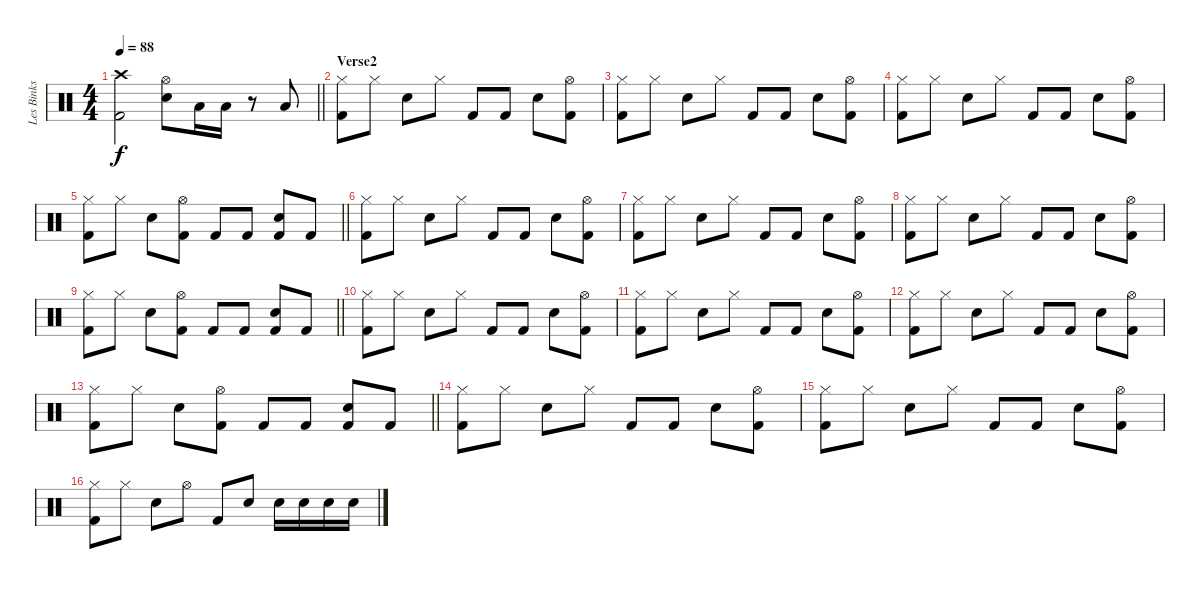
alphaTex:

\track ("Les Binks" "Les Binks") {instrument percussion}
\staff {score}
\articulation defaults
\ts (4 4)
\tempo 88
\clef neutral
\barLineRight lightlight
\ks c
("Crash high (hit)" "Kick (hit) 2").2{dy f} ("Snare (hit) 2" "Hi-Hat (open)").8 "Low Tom (hit)".16 "Low Tom (hit)".16 r.8 "Low Floor Tom (hit)".8 |
\section ("" "Verse2")
("Hi-Hat (closed)" "Kick (hit) 2").8 "Hi-Hat (closed)".8 "Snare (hit) 2".8 "Hi-Hat (closed)".8 "Kick (hit) 2".8 "Kick (hit) 2".8 "Snare (hit) 2".8 ("Hi-Hat (open)" "Kick (hit) 2").8 |
("Hi-Hat (closed)" "Kick (hit) 2").8 "Hi-Hat (closed)".8 "Snare (hit) 2".8 "Hi-Hat (closed)".8 "Kick (hit) 2".8 "Kick (hit) 2".8 "Snare (hit) 2".8 ("Hi-Hat (open)" "Kick (hit) 2").8 |
("Hi-Hat (closed)" "Kick (hit) 2").8 "Hi-Hat (closed)".8 "Snare (hit) 2".8 "Hi-Hat (closed)".8 "Kick (hit) 2".8 "Kick (hit) 2".8 "Snare (hit) 2".8 ("Hi-Hat (open)" "Kick (hit) 2").8 |
\barLineRight lightlight
("Hi-Hat (closed)" "Kick (hit) 2").8 "Hi-Hat (closed)".8 "Snare (hit) 2".8 ("Hi-Hat (open)" "Kick (hit) 2").8 "Kick (hit) 2".8 "Kick (hit) 2".8 ("Snare (hit) 2" "Kick (hit) 2").8 "Kick (hit) 2".8 |
("Hi-Hat (closed)" "Kick (hit) 2").8 "Hi-Hat (closed)".8 "Snare (hit) 2".8 "Hi-Hat (closed)".8 "Kick (hit) 2".8 "Kick (hit) 2".8 "Snare (hit) 2".8 ("Hi-Hat (open)" "Kick (hit) 2").8 |
("Hi-Hat (closed)" "Kick (hit) 2").8 "Hi-Hat (closed)".8 "Snare (hit) 2".8 "Hi-Hat (closed)".8 "Kick (hit) 2".8 "Kick (hit) 2".8 "Snare (hit) 2".8 ("Hi-Hat (open)" "Kick (hit) 2").8 |
("Hi-Hat (closed)" "Kick (hit) 2").8 "Hi-Hat (closed)".8 "Snare (hit) 2".8 "Hi-Hat (closed)".8 "Kick (hit) 2".8 "Kick (hit) 2".8 "Snare (hit) 2".8 ("Hi-Hat (open)" "Kick (hit) 2").8 |
\barLineRight lightlight
("Hi-Hat (closed)" "Kick (hit) 2").8 "Hi-Hat (closed)".8 "Snare (hit) 2".8 ("Hi-Hat (open)" "Kick (hit) 2").8 "Kick (hit) 2".8 "Kick (hit) 2".8 ("Snare (hit) 2" "Kick (hit) 2").8 "Kick (hit) 2".8 |
("Hi-Hat (closed)" "Kick (hit) 2").8 "Hi-Hat (closed)".8 "Snare (hit) 2".8 "Hi-Hat (closed)".8 "Kick (hit) 2".8 "Kick (hit) 2".8 "Snare (hit) 2".8 ("Hi-Hat (open)" "Kick (hit) 2").8 |
("Hi-Hat (closed)" "Kick (hit) 2").8 "Hi-Hat (closed)".8 "Snare (hit) 2".8 "Hi-Hat (closed)".8 "Kick (hit) 2".8 "Kick (hit) 2".8 "Snare (hit) 2".8 ("Hi-Hat (open)" "Kick (hit) 2").8 |
("Hi-Hat (closed)" "Kick (hit) 2").8 "Hi-Hat (closed)".8 "Snare (hit) 2".8 "Hi-Hat (closed)".8 "Kick (hit) 2".8 "Kick (hit) 2".8 "Snare (hit) 2".8 ("Hi-Hat (open)" "Kick (hit) 2").8 |
\barLineRight lightlight
("Hi-Hat (closed)" "Kick (hit) 2").8 "Hi-Hat (closed)".8 "Snare (hit) 2".8 ("Hi-Hat (open)" "Kick (hit) 2").8 "Kick (hit) 2".8 "Kick (hit) 2".8 ("Snare (hit) 2" "Kick (hit) 2").8 "Kick (hit) 2".8 |
("Hi-Hat (closed)" "Kick (hit) 2").8 "Hi-Hat (closed)".8 "Snare (hit) 2".8 "Hi-Hat (closed)".8 "Kick (hit) 2".8 "Kick (hit) 2".8 "Snare (hit) 2".8 ("Hi-Hat (open)" "Kick (hit) 2").8 |
("Hi-Hat (closed)" "Kick (hit) 2").8 "Hi-Hat (closed)".8 "Snare (hit) 2".8 "Hi-Hat (closed)".8 "Kick (hit) 2".8 "Kick (hit) 2".8 "Snare (hit) 2".8 ("Hi-Hat (open)" "Kick (hit) 2").8 |
("Hi-Hat (closed)" "Kick (hit) 2").8 "Hi-Hat (closed)".8 "Snare (hit) 2".8 "Hi-Hat (open)".8 "Kick (hit) 2".8 "Snare (hit) 2".8 "Snare (hit) 2".16 "Snare (hit) 2".16 "Snare (hit) 2".16 "Snare (hit) 2".16
